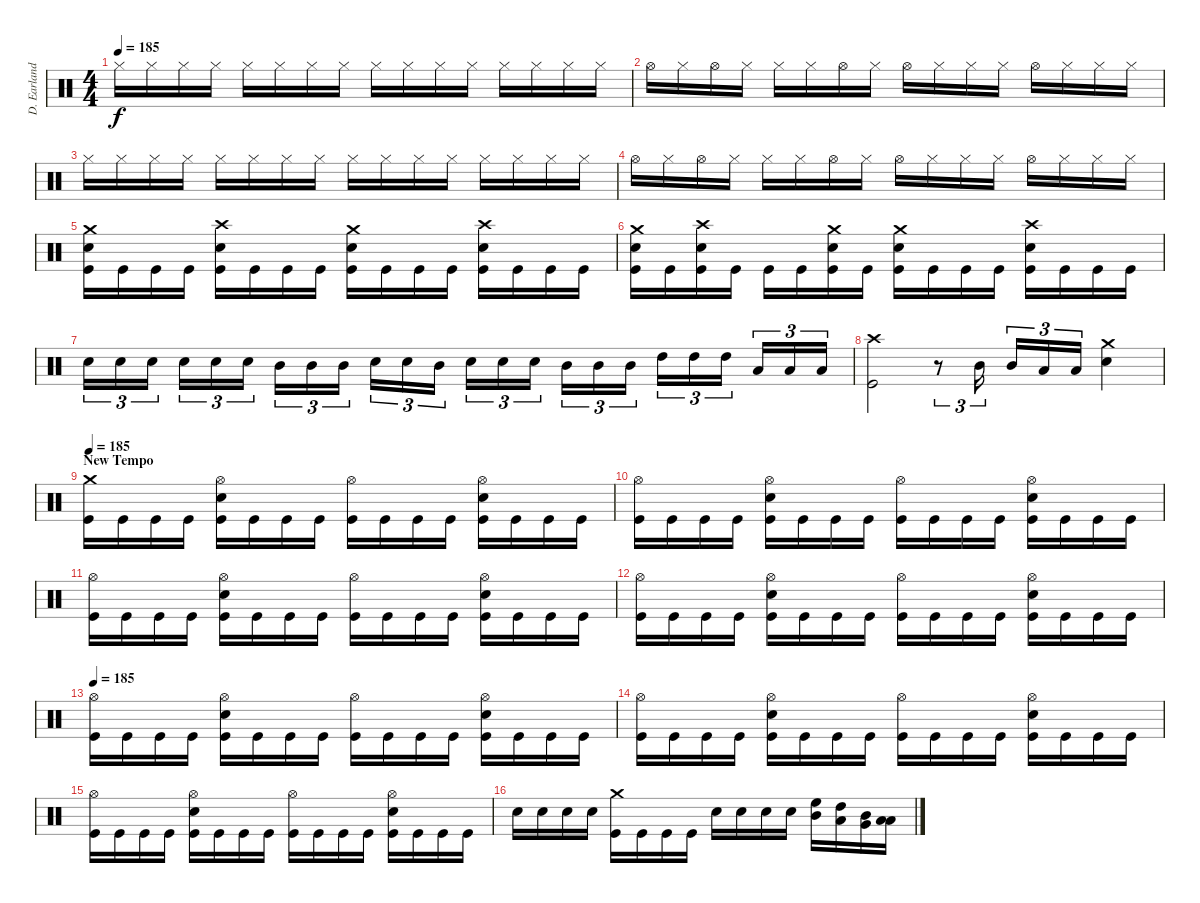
\track ("D. Earlanddson" "D. Earland") {instrument percussion}
\staff {score}
\articulation defaults
\ts (4 4)
\tempo 185
\tempo 145
\tempo 185
\clef neutral
\ks c "Hi-Hat (closed)".16{dy f} "Hi-Hat (closed)".16 "Hi-Hat (closed)".16 "Hi-Hat (closed)".16 "Hi-Hat (closed)".16 "Hi-Hat (closed)".16 "Hi-Hat (closed)".16 "Hi-Hat (closed)".16 "Hi-Hat (closed)".16 "Hi-Hat (closed)".16 "Hi-Hat (closed)".16 "Hi-Hat (closed)".16 "Hi-Hat (closed)".16 "Hi-Hat (closed)".16 "Hi-Hat (closed)".16 "Hi-Hat (closed)".16
|
"Hi-Hat (open)".16 "Hi-Hat (closed)".16 "Hi-Hat (open)".16 "Hi-Hat (closed)".16 "Hi-Hat (closed)".16 "Hi-Hat (closed)".16 "Hi-Hat (open)".16 "Hi-Hat (closed)".16 "Hi-Hat (open)".16 "Hi-Hat (closed)".16 "Hi-Hat (closed)".16 "Hi-Hat (closed)".16 "Hi-Hat (open)".16 "Hi-Hat (closed)".16 "Hi-Hat (closed)".16 "Hi-Hat (closed)".16 |
"Hi-Hat (closed)".16 "Hi-Hat (closed)".16 "Hi-Hat (closed)".16 "Hi-Hat (closed)".16 "Hi-Hat (closed)".16 "Hi-Hat (closed)".16 "Hi-Hat (closed)".16 "Hi-Hat (closed)".16 "Hi-Hat (closed)".16 "Hi-Hat (closed)".16 "Hi-Hat (closed)".16 "Hi-Hat (closed)".16 "Hi-Hat (closed)".16 "Hi-Hat (closed)".16 "Hi-Hat (closed)".16 "Hi-Hat (closed)".16 |
"Hi-Hat (open)".16 "Hi-Hat (closed)".16 "Hi-Hat (open)".16 "Hi-Hat (closed)".16 "Hi-Hat (closed)".16 "Hi-Hat (closed)".16 "Hi-Hat (open)".16 "Hi-Hat (closed)".16 "Hi-Hat (open)".16 "Hi-Hat (closed)".16 "Hi-Hat (closed)".16 "Hi-Hat (closed)".16 "Hi-Hat (open)".16 "Hi-Hat (closed)".16 "Hi-Hat (closed)".16 "Hi-Hat (closed)".16 |
("Crash medium (hit)" "Electric Snare (hit)" "Kick (hit)").16 "Kick (hit)".16 "Kick (hit)".16 "Kick (hit)".16 ("Crash high (hit)" "Electric Snare (hit)" "Kick (hit)").16 "Kick (hit)".16 "Kick (hit)".16 "Kick (hit)".16 ("Crash medium (hit)" "Electric Snare (hit)" "Kick (hit)").16 "Kick (hit)".16 "Kick (hit)".16 "Kick (hit)".16 ("Crash high (hit)" "Electric Snare (hit)" "Kick (hit)").16 "Kick (hit)".16 "Kick (hit)".16 "Kick (hit)".16 |
("Crash medium (hit)" "Electric Snare (hit)" "Kick (hit)").16 "Kick (hit)".16 ("Crash high (hit)" "Electric Snare (hit)" "Kick (hit)").16 "Kick (hit)".16 "Kick (hit)".16 "Kick (hit)".16 ("Crash medium (hit)" "Electric Snare (hit)" "Kick (hit)").16 "Kick (hit)".16 ("Crash medium (hit)" "Electric Snare (hit)" "Kick (hit)").16 "Kick (hit)".16 "Kick (hit)".16 "Kick (hit)".16 ("Crash high (hit)" "Electric Snare (hit)" "Kick (hit)").16 "Kick (hit)".16 "Kick (hit)".16 "Kick (hit)".16 |
"Electric Snare (hit)".16{tu (3 2)} "Electric Snare (hit)".16{tu (3 2)} "Electric Snare (hit)".16{tu (3 2)} "Electric Snare (hit)".16{tu (3 2)} "Electric Snare (hit)".16{tu (3 2)} "Electric Snare (hit)".16{tu (3 2)} "Mid Tom (hit)".16{tu (3 2)} "Mid Tom (hit)".16{tu (3 2)} "Mid Tom (hit)".16{tu (3 2)} "Electric Snare (hit)".16{tu (3 2)} "Electric Snare (hit)".16{tu (3 2)} "Mid Tom (hit)".16{tu (3 2)} "Electric Snare (hit)".16{tu (3 2)} "Electric Snare (hit)".16{tu (3 2)} "Electric Snare (hit)".16{tu (3 2)} "Mid Tom (hit)".16{tu (3 2)} "Mid Tom (hit)".16{tu (3 2)} "Mid Tom (hit)".16{tu (3 2)} "High Tom (hit)".16{tu (3 2)} "High Tom (hit)".16{tu (3 2)} "High Tom (hit)".16{tu (3 2)} "Low Tom (hit)".16{tu (3 2)} "Low Tom (hit)".16{tu (3 2)} "Low Tom (hit)".16{tu (3 2)} |
("Crash high (hit)" "Kick (hit)").2 r.8{tu (3 2)} "Mid Tom (hit)".16{tu (3 2)} "Mid Tom (hit)".16{tu (3 2)} "Low Tom (hit)".16{tu (3 2)} "Low Tom (hit)".16{tu (3 2)} ("Crash medium (hit)" "Electric Snare (hit)").4 |
\section ("" "New Tempo")
\tempo 185
("Crash medium (hit)" "Kick (hit)").16 "Kick (hit)".16 "Kick (hit)".16 "Kick (hit)".16 ("Hi-Hat (open)" "Electric Snare (hit)" "Kick (hit)").16 "Kick (hit)".16 "Kick (hit)".16 "Kick (hit)".16 ("Hi-Hat (open)" "Kick (hit)").16 "Kick (hit)".16 "Kick (hit)".16 "Kick (hit)".16 ("Hi-Hat (open)" "Electric Snare (hit)" "Kick (hit)").16 "Kick (hit)".16 "Kick (hit)".16 "Kick (hit)".16 |
("Hi-Hat (open)" "Kick (hit)").16 "Kick (hit)".16 "Kick (hit)".16 "Kick (hit)".16 ("Hi-Hat (open)" "Electric Snare (hit)" "Kick (hit)").16 "Kick (hit)".16 "Kick (hit)".16 "Kick (hit)".16 ("Hi-Hat (open)" "Kick (hit)").16 "Kick (hit)".16 "Kick (hit)".16 "Kick (hit)".16 ("Hi-Hat (open)" "Electric Snare (hit)" "Kick (hit)").16 "Kick (hit)".16 "Kick (hit)".16 "Kick (hit)".16 |
("Hi-Hat (open)" "Kick (hit)").16 "Kick (hit)".16 "Kick (hit)".16 "Kick (hit)".16 ("Hi-Hat (open)" "Electric Snare (hit)" "Kick (hit)").16 "Kick (hit)".16 "Kick (hit)".16 "Kick (hit)".16 ("Hi-Hat (open)" "Kick (hit)").16 "Kick (hit)".16 "Kick (hit)".16 "Kick (hit)".16 ("Hi-Hat (open)" "Electric Snare (hit)" "Kick (hit)").16 "Kick (hit)".16 "Kick (hit)".16 "Kick (hit)".16 |
("Hi-Hat (open)" "Kick (hit)").16 "Kick (hit)".16 "Kick (hit)".16 "Kick (hit)".16 ("Hi-Hat (open)" "Electric Snare (hit)" "Kick (hit)").16 "Kick (hit)".16 "Kick (hit)".16 "Kick (hit)".16 ("Hi-Hat (open)" "Kick (hit)").16 "Kick (hit)".16 "Kick (hit)".16 "Kick (hit)".16 ("Hi-Hat (open)" "Electric Snare (hit)" "Kick (hit)").16 "Kick (hit)".16 "Kick (hit)".16 "Kick (hit)".16 |
\tempo 185
("Hi-Hat (open)" "Kick (hit)").16 "Kick (hit)".16 "Kick (hit)".16 "Kick (hit)".16 ("Hi-Hat (open)" "Electric Snare (hit)" "Kick (hit)").16 "Kick (hit)".16 "Kick (hit)".16 "Kick (hit)".16 ("Hi-Hat (open)" "Kick (hit)").16 "Kick (hit)".16 "Kick (hit)".16 "Kick (hit)".16 ("Hi-Hat (open)" "Electric Snare (hit)" "Kick (hit)").16 "Kick (hit)".16 "Kick (hit)".16 "Kick (hit)".16 |
("Hi-Hat (open)" "Kick (hit)").16 "Kick (hit)".16 "Kick (hit)".16 "Kick (hit)".16 ("Hi-Hat (open)" "Electric Snare (hit)" "Kick (hit)").16 "Kick (hit)".16 "Kick (hit)".16 "Kick (hit)".16 ("Hi-Hat (open)" "Kick (hit)").16 "Kick (hit)".16 "Kick (hit)".16 "Kick (hit)".16 ("Hi-Hat (open)" "Electric Snare (hit)" "Kick (hit)").16 "Kick (hit)".16 "Kick (hit)".16 "Kick (hit)".16 |
("Hi-Hat (open)" "Kick (hit)").16 "Kick (hit)".16 "Kick (hit)".16 "Kick (hit)".16 ("Hi-Hat (open)" "Electric Snare (hit)" "Kick (hit)").16 "Kick (hit)".16 "Kick (hit)".16 "Kick (hit)".16 ("Hi-Hat (open)" "Kick (hit)").16 "Kick (hit)".16 "Kick (hit)".16 "Kick (hit)".16 ("Hi-Hat (open)" "Electric Snare (hit)" "Kick (hit)").16 "Kick (hit)".16 "Kick (hit)".16 "Kick (hit)".16 |
"Electric Snare (hit)".16 "Electric Snare (hit)".16 "Electric Snare (hit)".16 "Electric Snare (hit)".16 ("Crash medium (hit)" "Kick (hit)").16 "Kick (hit)".16 "Kick (hit)".16 "Kick (hit)".16 "Electric Snare (hit)".16 "Electric Snare (hit)".16 "Electric Snare (hit)".16 "Electric Snare (hit)".16 ("High Floor Tom (hit)" "Mid Tom (hit)").16 ("High Tom (hit)" "Low Tom (hit)").16 ("Mid Tom (hit)" "Very Low Tom (hit)").16 ("Low Tom (hit)" "Low Floor Tom (hit)").16
